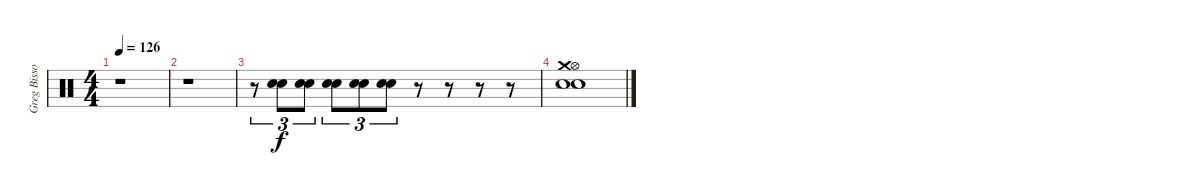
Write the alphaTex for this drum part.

\track ("Greg Bissonette - drums" "Greg Bisso") {instrument percussion}
\staff {score}
\articulation defaults
\ts (4 4)
\tempo 126
\clef neutral
\ks c
r.1{dy f} |
r.1 |
r.8{tu (3 2)} ("Snare (hit) 2" "Snare (hit) 2").8{tu (3 2)} ("Snare (hit) 2" "Snare (hit) 2").8{tu (3 2)} ("Snare (hit) 2" "Snare (hit) 2").8{tu (3 2)} ("Snare (hit) 2" "Snare (hit) 2").8{tu (3 2)} ("Snare (hit) 2" "Snare (hit) 2").8{tu (3 2)} r.8 r.8 r.8 r.8 |
("Snare (hit) 2" "Snare (hit) 2" "Hi-Hat (open)" "Crash medium (hit)").1
